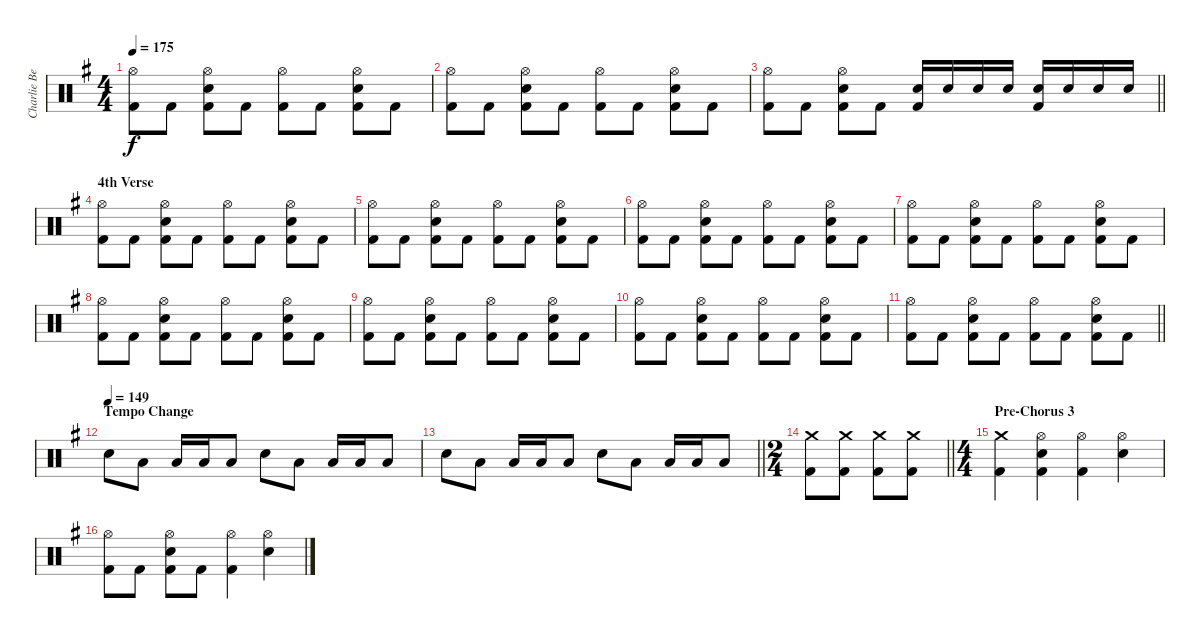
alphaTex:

\track ("Charlie Benate" "Charlie Be") {instrument percussion}
\staff {score}
\articulation defaults
\ts (4 4)
\tempo 175
\clef neutral
\ks g
("Hi-Hat (open)" "Kick (hit) 2").8{dy f} "Kick (hit) 2".8 ("Hi-Hat (open)" "Snare (hit) 2" "Kick (hit) 2").8 "Kick (hit) 2".8 ("Hi-Hat (open)" "Kick (hit) 2").8 "Kick (hit) 2".8 ("Hi-Hat (open)" "Snare (hit) 2" "Kick (hit) 2").8 "Kick (hit) 2".8 |
("Hi-Hat (open)" "Kick (hit) 2").8 "Kick (hit) 2".8 ("Hi-Hat (open)" "Snare (hit) 2" "Kick (hit) 2").8 "Kick (hit) 2".8 ("Hi-Hat (open)" "Kick (hit) 2").8 "Kick (hit) 2".8 ("Hi-Hat (open)" "Snare (hit) 2" "Kick (hit) 2").8 "Kick (hit) 2".8 |
\barLineRight lightlight
("Hi-Hat (open)" "Kick (hit) 2").8 "Kick (hit) 2".8 ("Hi-Hat (open)" "Snare (hit) 2" "Kick (hit) 2").8 "Kick (hit) 2".8 ("Snare (hit) 2" "Kick (hit) 2").16 "Snare (hit) 2".16 "Snare (hit) 2".16 "Snare (hit) 2".16 ("Snare (hit) 2" "Kick (hit) 2").16 "Snare (hit) 2".16 "Snare (hit) 2".16 "Snare (hit) 2".16 |
\section ("" "4th Verse")
("Hi-Hat (open)" "Kick (hit) 2").8 "Kick (hit) 2".8 ("Hi-Hat (open)" "Snare (hit) 2" "Kick (hit) 2").8 "Kick (hit) 2".8 ("Hi-Hat (open)" "Kick (hit) 2").8 "Kick (hit) 2".8 ("Hi-Hat (open)" "Snare (hit) 2" "Kick (hit) 2").8 "Kick (hit) 2".8 |
("Hi-Hat (open)" "Kick (hit) 2").8 "Kick (hit) 2".8 ("Hi-Hat (open)" "Snare (hit) 2" "Kick (hit) 2").8 "Kick (hit) 2".8 ("Hi-Hat (open)" "Kick (hit) 2").8 "Kick (hit) 2".8 ("Hi-Hat (open)" "Snare (hit) 2" "Kick (hit) 2").8 "Kick (hit) 2".8 |
("Hi-Hat (open)" "Kick (hit) 2").8 "Kick (hit) 2".8 ("Hi-Hat (open)" "Snare (hit) 2" "Kick (hit) 2").8 "Kick (hit) 2".8 ("Hi-Hat (open)" "Kick (hit) 2").8 "Kick (hit) 2".8 ("Hi-Hat (open)" "Snare (hit) 2" "Kick (hit) 2").8 "Kick (hit) 2".8 |
("Hi-Hat (open)" "Kick (hit) 2").8 "Kick (hit) 2".8 ("Hi-Hat (open)" "Snare (hit) 2" "Kick (hit) 2").8 "Kick (hit) 2".8 ("Hi-Hat (open)" "Kick (hit) 2").8 "Kick (hit) 2".8 ("Hi-Hat (open)" "Snare (hit) 2" "Kick (hit) 2").8 "Kick (hit) 2".8 |
("Hi-Hat (open)" "Kick (hit) 2").8 "Kick (hit) 2".8 ("Hi-Hat (open)" "Snare (hit) 2" "Kick (hit) 2").8 "Kick (hit) 2".8 ("Hi-Hat (open)" "Kick (hit) 2").8 "Kick (hit) 2".8 ("Hi-Hat (open)" "Snare (hit) 2" "Kick (hit) 2").8 "Kick (hit) 2".8 |
("Hi-Hat (open)" "Kick (hit) 2").8 "Kick (hit) 2".8 ("Hi-Hat (open)" "Snare (hit) 2" "Kick (hit) 2").8 "Kick (hit) 2".8 ("Hi-Hat (open)" "Kick (hit) 2").8 "Kick (hit) 2".8 ("Hi-Hat (open)" "Snare (hit) 2" "Kick (hit) 2").8 "Kick (hit) 2".8 |
("Hi-Hat (open)" "Kick (hit) 2").8 "Kick (hit) 2".8 ("Hi-Hat (open)" "Snare (hit) 2" "Kick (hit) 2").8 "Kick (hit) 2".8 ("Hi-Hat (open)" "Kick (hit) 2").8 "Kick (hit) 2".8 ("Hi-Hat (open)" "Snare (hit) 2" "Kick (hit) 2").8 "Kick (hit) 2".8 |
\barLineRight lightlight
("Hi-Hat (open)" "Kick (hit) 2").8 "Kick (hit) 2".8 ("Hi-Hat (open)" "Snare (hit) 2" "Kick (hit) 2").8 "Kick (hit) 2".8 ("Hi-Hat (open)" "Kick (hit) 2").8 "Kick (hit) 2".8 ("Hi-Hat (open)" "Snare (hit) 2" "Kick (hit) 2").8 "Kick (hit) 2".8 |
\section ("" "Tempo Change")
\tempo (149)
"Snare (hit) 2".8 "Low Tom (hit)".8 "Low Tom (hit)".16 "Low Tom (hit)".16 "Low Tom (hit)".8 "Snare (hit) 2".8 "Low Tom (hit)".8 "Low Tom (hit)".16 "Low Tom (hit)".16 "Low Tom (hit)".8 |
\barLineRight lightlight "Snare (hit) 2".8 "Low Tom (hit)".8 "Low Tom (hit)".16 "Low Tom (hit)".16 "Low Tom (hit)".8 "Snare (hit) 2".8 "Low Tom (hit)".8 "Low Tom (hit)".16 "Low Tom (hit)".16 "Low Tom (hit)".8
|
\ts (2 4)
\barLineRight lightlight
("Crash medium (hit)" "Kick (hit) 2").8 ("Crash medium (hit)" "Kick (hit) 2").8 ("Crash medium (hit)" "Kick (hit) 2").8 ("Crash medium (hit)" "Kick (hit) 2").8 |
\ts (4 4)
\section ("" "Pre-Chorus 3")
("Crash medium (hit)" "Kick (hit) 2").4 ("Hi-Hat (open)" "Snare (hit) 2" "Kick (hit) 2").4 ("Hi-Hat (open)" "Kick (hit) 2").4 ("Hi-Hat (open)" "Snare (hit) 2").4 |
("Hi-Hat (open)" "Kick (hit) 2").8 "Kick (hit) 2".8 ("Hi-Hat (open)" "Snare (hit) 2" "Kick (hit) 2").8 "Kick (hit) 2".8 ("Hi-Hat (open)" "Kick (hit) 2").4 ("Hi-Hat (open)" "Snare (hit) 2").4
